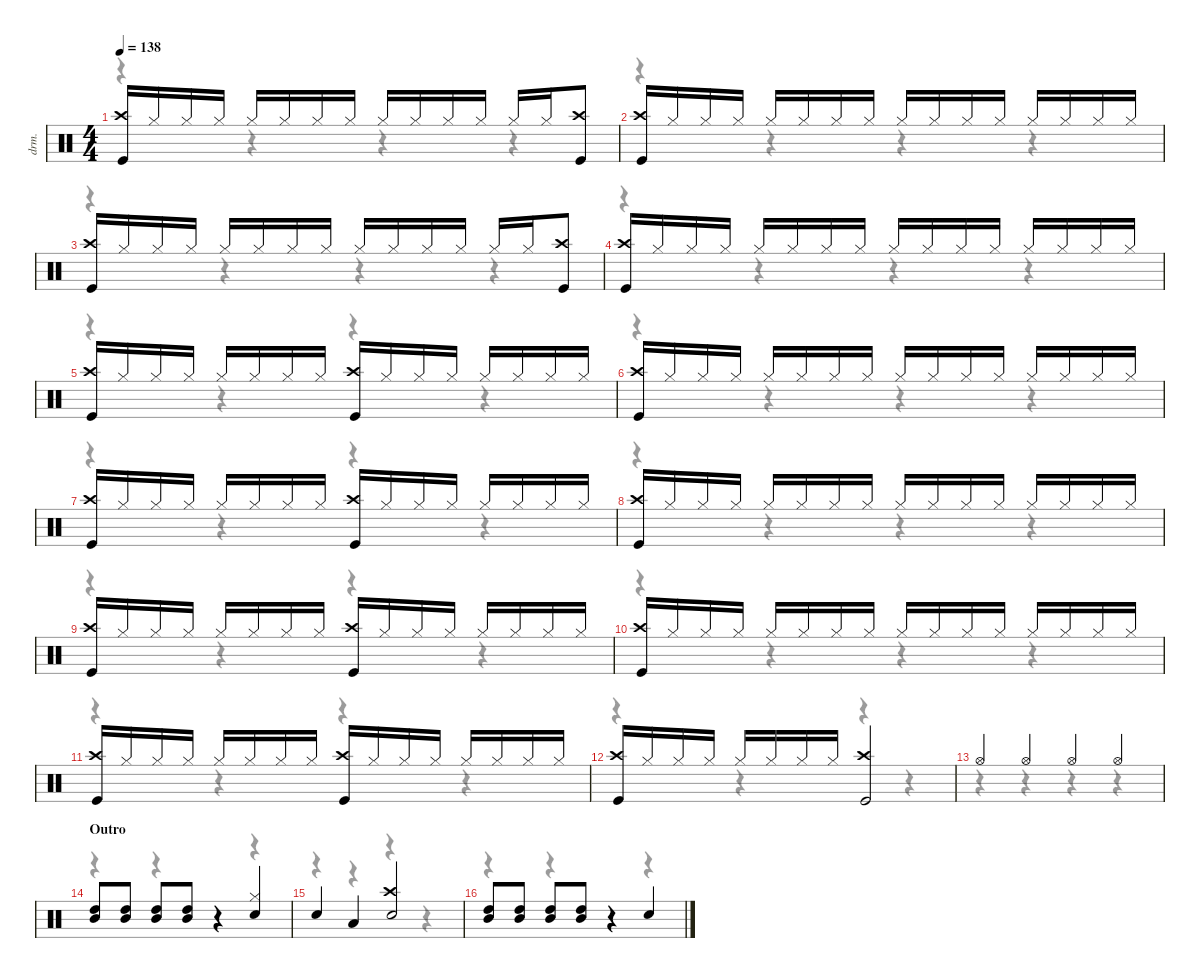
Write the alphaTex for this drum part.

\defaultSystemsLayout 4
\hideDynamics
\bracketExtendMode nobrackets
\track ("Drumkit" "drm.") {instrument percussion}
\staff {score}
\articulation defaults
\voice
\ts (4 4)
\tempo 138
\clef neutral
\ks c
("Crash high (hit)" "Kick (hit)").16{dy f} "Hi-Hat (closed)".16 "Hi-Hat (closed)".16 "Hi-Hat (closed)".16 "Hi-Hat (closed)".16 "Hi-Hat (closed)".16 "Hi-Hat (closed)".16 "Hi-Hat (closed)".16 "Hi-Hat (closed)".16 "Hi-Hat (closed)".16 "Hi-Hat (closed)".16 "Hi-Hat (closed)".16 "Hi-Hat (closed)".16 "Hi-Hat (closed)".16 ("Crash high (hit)" "Kick (hit)").8 |
("Crash high (hit)" "Kick (hit)").16 "Hi-Hat (closed)".16 "Hi-Hat (closed)".16 "Hi-Hat (closed)".16 "Hi-Hat (closed)".16 "Hi-Hat (closed)".16 "Hi-Hat (closed)".16 "Hi-Hat (closed)".16 "Hi-Hat (closed)".16 "Hi-Hat (closed)".16 "Hi-Hat (closed)".16 "Hi-Hat (closed)".16 "Hi-Hat (closed)".16 "Hi-Hat (closed)".16 "Hi-Hat (closed)".16 "Hi-Hat (closed)".16 |
("Crash high (hit)" "Kick (hit)").16 "Hi-Hat (closed)".16 "Hi-Hat (closed)".16 "Hi-Hat (closed)".16 "Hi-Hat (closed)".16 "Hi-Hat (closed)".16 "Hi-Hat (closed)".16 "Hi-Hat (closed)".16 "Hi-Hat (closed)".16 "Hi-Hat (closed)".16 "Hi-Hat (closed)".16 "Hi-Hat (closed)".16 "Hi-Hat (closed)".16 "Hi-Hat (closed)".16 ("Crash high (hit)" "Kick (hit)").8 |
("Crash high (hit)" "Kick (hit)").16 "Hi-Hat (closed)".16 "Hi-Hat (closed)".16 "Hi-Hat (closed)".16 "Hi-Hat (closed)".16 "Hi-Hat (closed)".16 "Hi-Hat (closed)".16 "Hi-Hat (closed)".16 "Hi-Hat (closed)".16 "Hi-Hat (closed)".16 "Hi-Hat (closed)".16 "Hi-Hat (closed)".16 "Hi-Hat (closed)".16 "Hi-Hat (closed)".16 "Hi-Hat (closed)".16 "Hi-Hat (closed)".16 |
("Crash high (hit)" "Kick (hit)").16 "Hi-Hat (closed)".16 "Hi-Hat (closed)".16 "Hi-Hat (closed)".16 "Hi-Hat (closed)".16 "Hi-Hat (closed)".16 "Hi-Hat (closed)".16 "Hi-Hat (closed)".16 ("Crash high (hit)" "Kick (hit)").16 "Hi-Hat (closed)".16 "Hi-Hat (closed)".16 "Hi-Hat (closed)".16 "Hi-Hat (closed)".16 "Hi-Hat (closed)".16 "Hi-Hat (closed)".16 "Hi-Hat (closed)".16 |
("Crash high (hit)" "Kick (hit)").16 "Hi-Hat (closed)".16 "Hi-Hat (closed)".16 "Hi-Hat (closed)".16 "Hi-Hat (closed)".16 "Hi-Hat (closed)".16 "Hi-Hat (closed)".16 "Hi-Hat (closed)".16 "Hi-Hat (closed)".16 "Hi-Hat (closed)".16 "Hi-Hat (closed)".16 "Hi-Hat (closed)".16 "Hi-Hat (closed)".16 "Hi-Hat (closed)".16 "Hi-Hat (closed)".16 "Hi-Hat (closed)".16 |
("Crash high (hit)" "Kick (hit)").16 "Hi-Hat (closed)".16 "Hi-Hat (closed)".16 "Hi-Hat (closed)".16 "Hi-Hat (closed)".16 "Hi-Hat (closed)".16 "Hi-Hat (closed)".16 "Hi-Hat (closed)".16 ("Crash high (hit)" "Kick (hit)").16 "Hi-Hat (closed)".16 "Hi-Hat (closed)".16 "Hi-Hat (closed)".16 "Hi-Hat (closed)".16 "Hi-Hat (closed)".16 "Hi-Hat (closed)".16 "Hi-Hat (closed)".16 |
("Crash high (hit)" "Kick (hit)").16 "Hi-Hat (closed)".16 "Hi-Hat (closed)".16 "Hi-Hat (closed)".16 "Hi-Hat (closed)".16 "Hi-Hat (closed)".16 "Hi-Hat (closed)".16 "Hi-Hat (closed)".16 "Hi-Hat (closed)".16 "Hi-Hat (closed)".16 "Hi-Hat (closed)".16 "Hi-Hat (closed)".16 "Hi-Hat (closed)".16 "Hi-Hat (closed)".16 "Hi-Hat (closed)".16 "Hi-Hat (closed)".16 |
("Crash high (hit)" "Kick (hit)").16 "Hi-Hat (closed)".16 "Hi-Hat (closed)".16 "Hi-Hat (closed)".16 "Hi-Hat (closed)".16 "Hi-Hat (closed)".16 "Hi-Hat (closed)".16 "Hi-Hat (closed)".16 ("Crash high (hit)" "Kick (hit)").16 "Hi-Hat (closed)".16 "Hi-Hat (closed)".16 "Hi-Hat (closed)".16 "Hi-Hat (closed)".16 "Hi-Hat (closed)".16 "Hi-Hat (closed)".16 "Hi-Hat (closed)".16 |
("Crash high (hit)" "Kick (hit)").16 "Hi-Hat (closed)".16 "Hi-Hat (closed)".16 "Hi-Hat (closed)".16 "Hi-Hat (closed)".16 "Hi-Hat (closed)".16 "Hi-Hat (closed)".16 "Hi-Hat (closed)".16 "Hi-Hat (closed)".16 "Hi-Hat (closed)".16 "Hi-Hat (closed)".16 "Hi-Hat (closed)".16 "Hi-Hat (closed)".16 "Hi-Hat (closed)".16 "Hi-Hat (closed)".16 "Hi-Hat (closed)".16 |
("Crash high (hit)" "Kick (hit)").16 "Hi-Hat (closed)".16 "Hi-Hat (closed)".16 "Hi-Hat (closed)".16 "Hi-Hat (closed)".16 "Hi-Hat (closed)".16 "Hi-Hat (closed)".16 "Hi-Hat (closed)".16 ("Crash high (hit)" "Kick (hit)").16 "Hi-Hat (closed)".16 "Hi-Hat (closed)".16 "Hi-Hat (closed)".16 "Hi-Hat (closed)".16 "Hi-Hat (closed)".16 "Hi-Hat (closed)".16 "Hi-Hat (closed)".16 |
("Crash high (hit)" "Kick (hit)").16 "Hi-Hat (closed)".16 "Hi-Hat (closed)".16 "Hi-Hat (closed)".16 "Hi-Hat (closed)".16 "Hi-Hat (closed)".16 "Hi-Hat (closed)".16 "Hi-Hat (closed)".16 ("Kick (hit)" "Crash high (hit)").2 |
"Hi-Hat (open)".4 "Hi-Hat (open)".4 "Hi-Hat (open)".4 "Hi-Hat (open)".4 |
\section ("" "Outro")
("High Tom (hit)" "Mid Tom (hit)").8 ("Mid Tom (hit)" "High Tom (hit)").8 ("Mid Tom (hit)" "High Tom (hit)").8 ("Mid Tom (hit)" "High Tom (hit)").8 r.4 ("Hi-Hat (closed)" "Snare (hit) 2").4 |
"Snare (hit) 2".4 "Low Tom (hit)".4 ("Crash high (hit)" "Snare (hit) 2").2 |
("High Tom (hit)" "Mid Tom (hit)").8 ("Mid Tom (hit)" "High Tom (hit)").8 ("Mid Tom (hit)" "High Tom (hit)").8 ("Mid Tom (hit)" "High Tom (hit)").8 r.4 "Snare (hit) 2".4
\voice
\clef neutral
\ottava regular
\simile none
\ks c
r.4{dy mf} r.4 r.4 r.4 |
r.4 r.4 r.4 r.4 |
r.4 r.4 r.4 r.4 |
r.4 r.4 r.4 r.4 |
r.4 r.4 r.4 r.4 |
r.4 r.4 r.4 r.4 |
r.4 r.4 r.4 r.4 |
r.4 r.4 r.4 r.4 |
r.4 r.4 r.4 r.4 |
r.4 r.4 r.4 r.4 |
r.4 r.4 r.4 r.4 |
r.4 r.4 r.4 r.4 |
r.4 r.4 r.4 r.4 |
r.4 r.4 r.4 r.4 |
r.4 r.4 r.4 r.4 |
r.4 r.4 r.4 r.4
